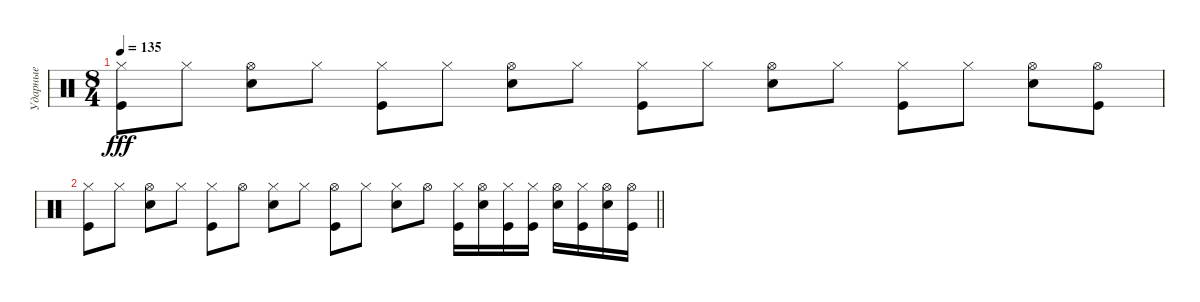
\track ("Ударные" "Ударные") {instrument percussion}
\staff {score}
\articulation defaults
\ts (8 4)
\tempo 135
\clef neutral
\ks c
("Hi-Hat (closed)" "Kick (hit)").8{dy fff} "Hi-Hat (closed)".8 ("Hi-Hat (open)" "Electric Snare (hit)").8 "Hi-Hat (closed)".8 ("Hi-Hat (closed)" "Kick (hit)").8 "Hi-Hat (closed)".8 ("Hi-Hat (open)" "Electric Snare (hit)").8 "Hi-Hat (closed)".8 ("Hi-Hat (closed)" "Kick (hit)").8 "Hi-Hat (closed)".8 ("Hi-Hat (open)" "Electric Snare (hit)").8 "Hi-Hat (closed)".8 ("Hi-Hat (closed)" "Kick (hit)").8 "Hi-Hat (closed)".8 ("Hi-Hat (open)" "Electric Snare (hit)").8 ("Hi-Hat (open)" "Kick (hit)").8 |
\barLineRight lightlight
("Hi-Hat (closed)" "Kick (hit)").8 "Hi-Hat (closed)".8 ("Hi-Hat (open)" "Electric Snare (hit)").8 "Hi-Hat (closed)".8 ("Hi-Hat (closed)" "Kick (hit)").8 "Hi-Hat (open)".8 ("Hi-Hat (closed)" "Electric Snare (hit)").8 "Hi-Hat (closed)".8 ("Hi-Hat (open)" "Kick (hit)").8 "Hi-Hat (closed)".8 ("Hi-Hat (closed)" "Electric Snare (hit)").8 "Hi-Hat (open)".8 ("Hi-Hat (closed)" "Kick (hit)").16 ("Hi-Hat (open)" "Electric Snare (hit)").16 ("Hi-Hat (closed)" "Kick (hit)").16 ("Hi-Hat (closed)" "Kick (hit)").16 ("Hi-Hat (open)" "Electric Snare (hit)").16 ("Hi-Hat (closed)" "Kick (hit)").16 ("Hi-Hat (open)" "Electric Snare (hit)").16 ("Hi-Hat (open)" "Kick (hit)").16
